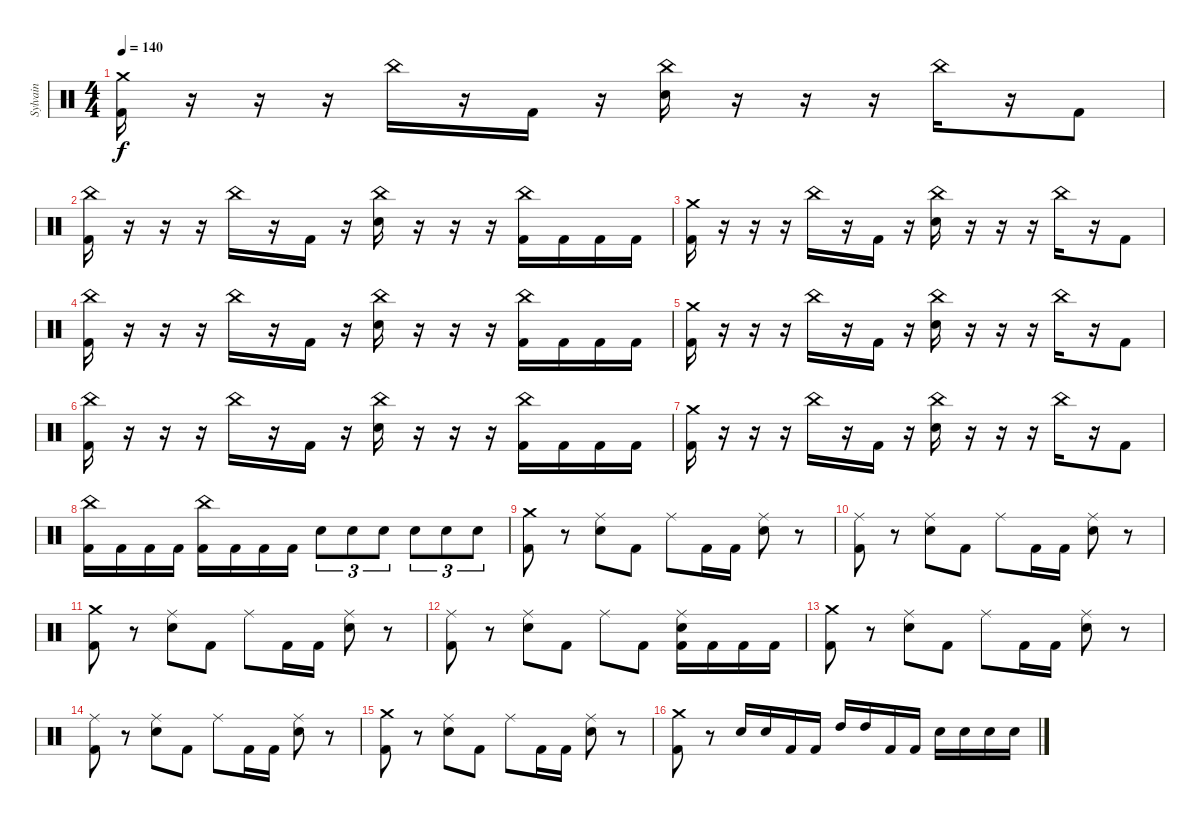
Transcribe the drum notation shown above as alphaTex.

\track ("Sylvain" "Sylvain") {instrument percussion}
\staff {score}
\articulation defaults
\ts (4 4)
\tempo 140
\clef neutral
\ks c
("Crash medium (hit)" "Kick (hit) 2").16{dy f} r.16 r.16 r.16 "China (hit)".16 r.16 "Kick (hit) 2".16 r.16 ("China (hit)" "Snare (hit) 2").16 r.16 r.16 r.16 "China (hit)".16 r.16 "Kick (hit) 2".8 |
("China (hit)" "Kick (hit) 2").16 r.16 r.16 r.16 "China (hit)".16 r.16 "Kick (hit) 2".16 r.16 ("China (hit)" "Snare (hit) 2").16 r.16 r.16 r.16 ("China (hit)" "Kick (hit) 2").16 "Kick (hit) 2".16 "Kick (hit) 2".16 "Kick (hit) 2".16 |
("Crash medium (hit)" "Kick (hit) 2").16 r.16 r.16 r.16 "China (hit)".16 r.16 "Kick (hit) 2".16 r.16 ("China (hit)" "Snare (hit) 2").16 r.16 r.16 r.16 "China (hit)".16 r.16 "Kick (hit) 2".8 |
("China (hit)" "Kick (hit) 2").16 r.16 r.16 r.16 "China (hit)".16 r.16 "Kick (hit) 2".16 r.16 ("China (hit)" "Snare (hit) 2").16 r.16 r.16 r.16 ("China (hit)" "Kick (hit) 2").16 "Kick (hit) 2".16 "Kick (hit) 2".16 "Kick (hit) 2".16 |
("Crash medium (hit)" "Kick (hit) 2").16 r.16 r.16 r.16 "China (hit)".16 r.16 "Kick (hit) 2".16 r.16 ("China (hit)" "Snare (hit) 2").16 r.16 r.16 r.16 "China (hit)".16 r.16 "Kick (hit) 2".8 |
("China (hit)" "Kick (hit) 2").16 r.16 r.16 r.16 "China (hit)".16 r.16 "Kick (hit) 2".16 r.16 ("China (hit)" "Snare (hit) 2").16 r.16 r.16 r.16 ("China (hit)" "Kick (hit) 2").16 "Kick (hit) 2".16 "Kick (hit) 2".16 "Kick (hit) 2".16 |
("Crash medium (hit)" "Kick (hit) 2").16 r.16 r.16 r.16 "China (hit)".16 r.16 "Kick (hit) 2".16 r.16 ("China (hit)" "Snare (hit) 2").16 r.16 r.16 r.16 "China (hit)".16 r.16 "Kick (hit) 2".8 |
("China (hit)" "Kick (hit) 2").16 "Kick (hit) 2".16 "Kick (hit) 2".16 "Kick (hit) 2".16 ("China (hit)" "Kick (hit) 2").16 "Kick (hit) 2".16 "Kick (hit) 2".16 "Kick (hit) 2".16 "Snare (hit) 2".8{tu (3 2)} "Snare (hit) 2".8{tu (3 2)} "Snare (hit) 2".8{tu (3 2)} "Snare (hit) 2".8{tu (3 2)} "Snare (hit) 2".8{tu (3 2)} "Snare (hit) 2".8{tu (3 2)} |
("Crash medium (hit)" "Kick (hit) 2").8 r.8 ("Ride (middle)" "Snare (hit) 2").8 "Kick (hit) 2".8 "Ride (middle)".8 "Kick (hit) 2".16 "Kick (hit) 2".16 ("Ride (middle)" "Snare (hit) 2").8 r.8 |
("Ride (middle)" "Kick (hit) 2").8 r.8 ("Ride (middle)" "Snare (hit) 2").8 "Kick (hit) 2".8 "Ride (middle)".8 "Kick (hit) 2".16 "Kick (hit) 2".16 ("Ride (middle)" "Snare (hit) 2").8 r.8 |
("Crash medium (hit)" "Kick (hit) 2").8 r.8 ("Ride (middle)" "Snare (hit) 2").8 "Kick (hit) 2".8 "Ride (middle)".8 "Kick (hit) 2".16 "Kick (hit) 2".16 ("Ride (middle)" "Snare (hit) 2").8 r.8 |
("Ride (middle)" "Kick (hit) 2").8 r.8 ("Ride (middle)" "Snare (hit) 2").8 "Kick (hit) 2".8 "Ride (middle)".8 "Kick (hit) 2".8 ("Ride (middle)" "Snare (hit) 2" "Kick (hit) 2").16 "Kick (hit) 2".16 "Kick (hit) 2".16 "Kick (hit) 2".16 |
("Crash medium (hit)" "Kick (hit) 2").8 r.8 ("Ride (middle)" "Snare (hit) 2").8 "Kick (hit) 2".8 "Ride (middle)".8 "Kick (hit) 2".16 "Kick (hit) 2".16 ("Ride (middle)" "Snare (hit) 2").8 r.8 |
("Ride (middle)" "Kick (hit) 2").8 r.8 ("Ride (middle)" "Snare (hit) 2").8 "Kick (hit) 2".8 "Ride (middle)".8 "Kick (hit) 2".16 "Kick (hit) 2".16 ("Ride (middle)" "Snare (hit) 2").8 r.8 |
("Crash medium (hit)" "Kick (hit) 2").8 r.8 ("Ride (middle)" "Snare (hit) 2").8 "Kick (hit) 2".8 "Ride (middle)".8 "Kick (hit) 2".16 "Kick (hit) 2".16 ("Ride (middle)" "Snare (hit) 2").8 r.8 |
("Crash medium (hit)" "Kick (hit) 2").8 r.8 "Snare (hit) 2".16 "Snare (hit) 2".16 "Kick (hit) 2".16 "Kick (hit) 2".16 "High Tom (hit)".16 "High Tom (hit)".16 "Kick (hit) 2".16 "Kick (hit) 2".16 "Snare (hit) 2".16 "Snare (hit) 2".16 "Snare (hit) 2".16 "Snare (hit) 2".16
